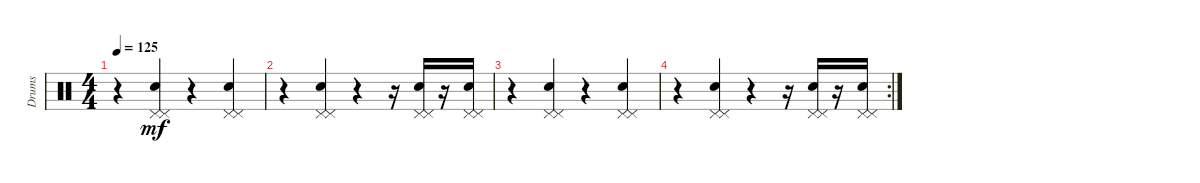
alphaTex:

\track ("Drums" "Drums") {instrument percussion}
\staff {score}
\articulation defaults
\ts (4 4)
\tempo 125
\clef neutral
\ks c
r.4{dy mf} ("Pedal Hi-Hat (hit)" "Electric Snare (hit)" "Pedal Hi-Hat (hit)").4 r.4 ("Pedal Hi-Hat (hit)" "Electric Snare (hit)" "Pedal Hi-Hat (hit)").4 |
r.4 ("Pedal Hi-Hat (hit)" "Electric Snare (hit)" "Pedal Hi-Hat (hit)").4 r.4 r.16 ("Pedal Hi-Hat (hit)" "Electric Snare (hit)" "Pedal Hi-Hat (hit)").16 r.16 ("Pedal Hi-Hat (hit)" "Electric Snare (hit)" "Pedal Hi-Hat (hit)").16 |
r.4 ("Pedal Hi-Hat (hit)" "Electric Snare (hit)" "Pedal Hi-Hat (hit)").4 r.4 ("Pedal Hi-Hat (hit)" "Electric Snare (hit)" "Pedal Hi-Hat (hit)").4 |
\rc 2
r.4 ("Pedal Hi-Hat (hit)" "Electric Snare (hit)" "Pedal Hi-Hat (hit)").4 r.4 r.16 ("Pedal Hi-Hat (hit)" "Electric Snare (hit)" "Pedal Hi-Hat (hit)").16 r.16 ("Pedal Hi-Hat (hit)" "Electric Snare (hit)" "Pedal Hi-Hat (hit)").16
